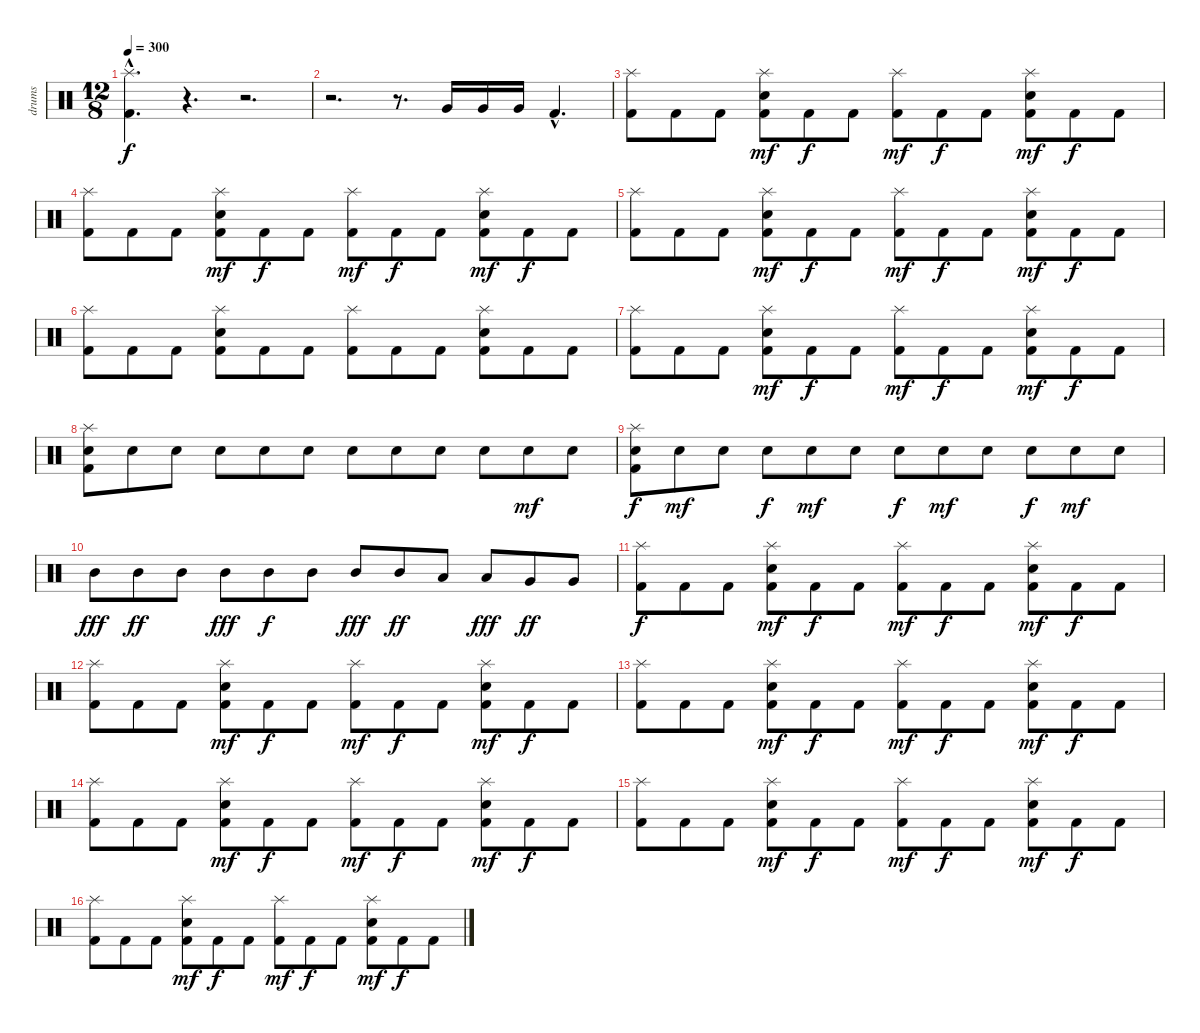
\track ("drums" "drums") {instrument percussion}
\staff {score}
\articulation defaults
\ts (12 8)
\tempo 300
\clef neutral
\ks c
("Splash (hit)"{hac} "Kick (hit) 2"{hac}).4{d dy f} r.4{d} r.2{d} |
r.2{d} r.8{d} "Very Low Tom (hit)".16 "Very Low Tom (hit)".16 "Very Low Tom (hit)".16 "Kick (hit) 2"{hac}.4{d} |
("Splash (hit)" "Kick (hit) 2").8 "Kick (hit) 2".8 "Kick (hit) 2".8 ("Splash (hit)" "Snare (hit) 2" "Kick (hit) 2").8{dy mf} "Kick (hit) 2".8{dy f} "Kick (hit) 2".8 ("Splash (hit)" "Kick (hit) 2").8{dy mf} "Kick (hit) 2".8{dy f} "Kick (hit) 2".8 ("Splash (hit)" "Snare (hit) 2" "Kick (hit) 2").8{dy mf} "Kick (hit) 2".8{dy f} "Kick (hit) 2".8 |
("Splash (hit)" "Kick (hit) 2").8 "Kick (hit) 2".8 "Kick (hit) 2".8 ("Splash (hit)" "Snare (hit) 2" "Kick (hit) 2").8{dy mf} "Kick (hit) 2".8{dy f} "Kick (hit) 2".8 ("Splash (hit)" "Kick (hit) 2").8{dy mf} "Kick (hit) 2".8{dy f} "Kick (hit) 2".8 ("Splash (hit)" "Snare (hit) 2" "Kick (hit) 2").8{dy mf} "Kick (hit) 2".8{dy f} "Kick (hit) 2".8 |
("Splash (hit)" "Kick (hit) 2").8 "Kick (hit) 2".8 "Kick (hit) 2".8 ("Splash (hit)" "Snare (hit) 2" "Kick (hit) 2").8{dy mf} "Kick (hit) 2".8{dy f} "Kick (hit) 2".8 ("Splash (hit)" "Kick (hit) 2").8{dy mf} "Kick (hit) 2".8{dy f} "Kick (hit) 2".8 ("Splash (hit)" "Snare (hit) 2" "Kick (hit) 2").8{dy mf} "Kick (hit) 2".8{dy f} "Kick (hit) 2".8 |
("Splash (hit)" "Kick (hit) 2").8 "Kick (hit) 2".8 "Kick (hit) 2".8 ("Splash (hit)" "Snare (hit) 2" "Kick (hit) 2").8 "Kick (hit) 2".8 "Kick (hit) 2".8 ("Splash (hit)" "Kick (hit) 2").8 "Kick (hit) 2".8 "Kick (hit) 2".8 ("Splash (hit)" "Snare (hit) 2" "Kick (hit) 2").8 "Kick (hit) 2".8 "Kick (hit) 2".8 |
("Splash (hit)" "Kick (hit) 2").8 "Kick (hit) 2".8 "Kick (hit) 2".8 ("Splash (hit)" "Snare (hit) 2" "Kick (hit) 2").8{dy mf} "Kick (hit) 2".8{dy f} "Kick (hit) 2".8 ("Splash (hit)" "Kick (hit) 2").8{dy mf} "Kick (hit) 2".8{dy f} "Kick (hit) 2".8 ("Splash (hit)" "Snare (hit) 2" "Kick (hit) 2").8{dy mf} "Kick (hit) 2".8{dy f} "Kick (hit) 2".8 |
("Splash (hit)" "Snare (hit) 2" "Kick (hit) 2").8 "Snare (hit) 2".8 "Snare (hit) 2".8 "Snare (hit) 2".8 "Snare (hit) 2".8 "Snare (hit) 2".8 "Snare (hit) 2".8 "Snare (hit) 2".8 "Snare (hit) 2".8 "Snare (hit) 2".8 "Snare (hit) 2".8{dy mf} "Snare (hit) 2".8 |
("Splash (hit)" "Snare (hit) 2" "Kick (hit) 2").8{dy f} "Snare (hit) 2".8{dy mf} "Snare (hit) 2".8 "Snare (hit) 2".8{dy f} "Snare (hit) 2".8{dy mf} "Snare (hit) 2".8 "Snare (hit) 2".8{dy f} "Snare (hit) 2".8{dy mf} "Snare (hit) 2".8 "Snare (hit) 2".8{dy f} "Snare (hit) 2".8{dy mf} "Snare (hit) 2".8 |
"Mid Tom (hit)".8{dy fff} "Mid Tom (hit)".8{dy ff} "Mid Tom (hit)".8 "Mid Tom (hit)".8{dy fff} "Mid Tom (hit)".8{dy f} "Mid Tom (hit)".8 "Mid Tom (hit)".8{dy fff} "Mid Tom (hit)".8{dy ff} "Low Tom (hit)".8 "Low Tom (hit)".8{dy fff} "Very Low Tom (hit)".8{dy ff} "Very Low Tom (hit)".8 |
("Splash (hit)" "Kick (hit) 2").8{dy f} "Kick (hit) 2".8 "Kick (hit) 2".8 ("Splash (hit)" "Snare (hit) 2" "Kick (hit) 2").8{dy mf} "Kick (hit) 2".8{dy f} "Kick (hit) 2".8 ("Splash (hit)" "Kick (hit) 2").8{dy mf} "Kick (hit) 2".8{dy f} "Kick (hit) 2".8 ("Splash (hit)" "Snare (hit) 2" "Kick (hit) 2").8{dy mf} "Kick (hit) 2".8{dy f} "Kick (hit) 2".8 |
("Splash (hit)" "Kick (hit) 2").8 "Kick (hit) 2".8 "Kick (hit) 2".8 ("Splash (hit)" "Snare (hit) 2" "Kick (hit) 2").8{dy mf} "Kick (hit) 2".8{dy f} "Kick (hit) 2".8 ("Splash (hit)" "Kick (hit) 2").8{dy mf} "Kick (hit) 2".8{dy f} "Kick (hit) 2".8 ("Splash (hit)" "Snare (hit) 2" "Kick (hit) 2").8{dy mf} "Kick (hit) 2".8{dy f} "Kick (hit) 2".8 |
("Splash (hit)" "Kick (hit) 2").8 "Kick (hit) 2".8 "Kick (hit) 2".8 ("Splash (hit)" "Snare (hit) 2" "Kick (hit) 2").8{dy mf} "Kick (hit) 2".8{dy f} "Kick (hit) 2".8 ("Splash (hit)" "Kick (hit) 2").8{dy mf} "Kick (hit) 2".8{dy f} "Kick (hit) 2".8 ("Splash (hit)" "Snare (hit) 2" "Kick (hit) 2").8{dy mf} "Kick (hit) 2".8{dy f} "Kick (hit) 2".8 |
("Splash (hit)" "Kick (hit) 2").8 "Kick (hit) 2".8 "Kick (hit) 2".8 ("Splash (hit)" "Snare (hit) 2" "Kick (hit) 2").8{dy mf} "Kick (hit) 2".8{dy f} "Kick (hit) 2".8 ("Splash (hit)" "Kick (hit) 2").8{dy mf} "Kick (hit) 2".8{dy f} "Kick (hit) 2".8 ("Splash (hit)" "Snare (hit) 2" "Kick (hit) 2").8{dy mf} "Kick (hit) 2".8{dy f} "Kick (hit) 2".8 |
("Splash (hit)" "Kick (hit) 2").8 "Kick (hit) 2".8 "Kick (hit) 2".8 ("Splash (hit)" "Snare (hit) 2" "Kick (hit) 2").8{dy mf} "Kick (hit) 2".8{dy f} "Kick (hit) 2".8 ("Splash (hit)" "Kick (hit) 2").8{dy mf} "Kick (hit) 2".8{dy f} "Kick (hit) 2".8 ("Splash (hit)" "Snare (hit) 2" "Kick (hit) 2").8{dy mf} "Kick (hit) 2".8{dy f} "Kick (hit) 2".8 |
("Splash (hit)" "Kick (hit) 2").8 "Kick (hit) 2".8 "Kick (hit) 2".8 ("Splash (hit)" "Snare (hit) 2" "Kick (hit) 2").8{dy mf} "Kick (hit) 2".8{dy f} "Kick (hit) 2".8 ("Splash (hit)" "Kick (hit) 2").8{dy mf} "Kick (hit) 2".8{dy f} "Kick (hit) 2".8 ("Splash (hit)" "Snare (hit) 2" "Kick (hit) 2").8{dy mf} "Kick (hit) 2".8{dy f} "Kick (hit) 2".8
